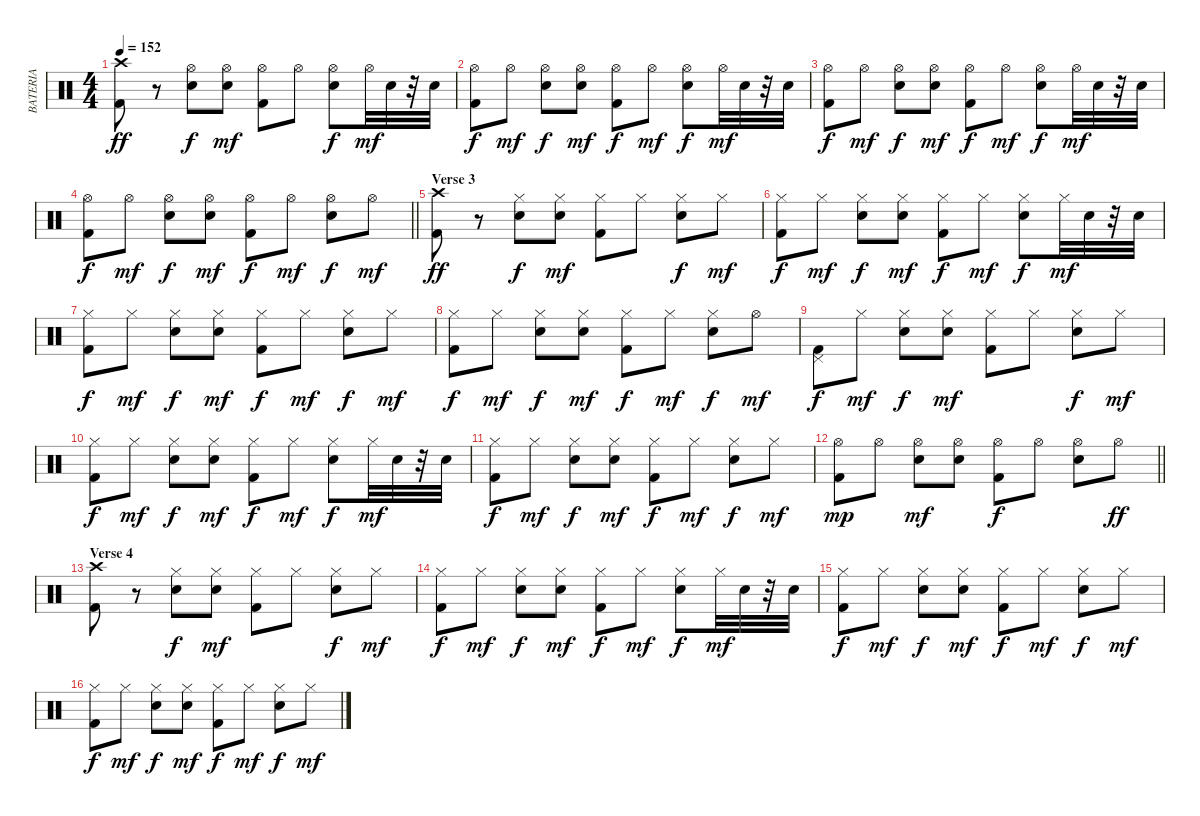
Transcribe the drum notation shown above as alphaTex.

\track ("BATERIA" "BATERIA") {instrument percussion}
\staff {score}
\articulation defaults
\ts (4 4)
\tempo 152
\clef neutral
\ks c
("Kick (hit) 2" "Crash high (hit)").8{dy ff} r.8 ("Snare (hit) 2" "Hi-Hat (open)").8{dy f} ("Snare (hit) 2" "Hi-Hat (open)").8{dy mf} ("Kick (hit) 2" "Hi-Hat (open)").8 "Hi-Hat (open)".8 ("Snare (hit) 2" "Hi-Hat (open)").8{dy f} "Hi-Hat (open)".32{dy mf} "Snare (hit) 2".32 r.32 "Snare (hit) 2".32 |
("Hi-Hat (open)" "Kick (hit) 2").8{dy f} "Hi-Hat (open)".8{dy mf} ("Hi-Hat (open)" "Snare (hit) 2").8{dy f} ("Hi-Hat (open)" "Snare (hit) 2").8{dy mf} ("Hi-Hat (open)" "Kick (hit) 2").8{dy f} "Hi-Hat (open)".8{dy mf} ("Hi-Hat (open)" "Snare (hit) 2").8{dy f} "Hi-Hat (open)".32{dy mf} "Snare (hit) 2".32 r.32 "Snare (hit) 2".32 |
("Hi-Hat (open)" "Kick (hit) 2").8{dy f} "Hi-Hat (open)".8{dy mf} ("Hi-Hat (open)" "Snare (hit) 2").8{dy f} ("Hi-Hat (open)" "Snare (hit) 2").8{dy mf} ("Hi-Hat (open)" "Kick (hit) 2").8{dy f} "Hi-Hat (open)".8{dy mf} ("Hi-Hat (open)" "Snare (hit) 2").8{dy f} "Hi-Hat (open)".32{dy mf} "Snare (hit) 2".32 r.32 "Snare (hit) 2".32 |
\barLineRight lightlight
("Hi-Hat (open)" "Kick (hit) 2").8{dy f} "Hi-Hat (open)".8{dy mf} ("Snare (hit) 2" "Hi-Hat (open)").8{dy f} ("Snare (hit) 2" "Hi-Hat (open)").8{dy mf} ("Hi-Hat (open)" "Kick (hit) 2").8{dy f} "Hi-Hat (open)".8{dy mf} ("Hi-Hat (open)" "Snare (hit) 2").8{dy f} "Hi-Hat (open)".8{dy mf} |
\section ("" "Verse 3")
("Kick (hit) 2" "Crash high (hit)").8{dy ff} r.8 ("Snare (hit) 2" "Hi-Hat (closed)").8{dy f} ("Snare (hit) 2" "Hi-Hat (closed)").8{dy mf} ("Kick (hit) 2" "Hi-Hat (closed)").8 "Hi-Hat (closed)".8 ("Snare (hit) 2" "Hi-Hat (closed)").8{dy f} "Hi-Hat (closed)".8{dy mf} |
("Hi-Hat (closed)" "Kick (hit) 2").8{dy f} "Hi-Hat (closed)".8{dy mf} ("Hi-Hat (closed)" "Snare (hit) 2").8{dy f} ("Hi-Hat (closed)" "Snare (hit) 2").8{dy mf} ("Hi-Hat (closed)" "Kick (hit) 2").8{dy f} "Hi-Hat (closed)".8{dy mf} ("Hi-Hat (closed)" "Snare (hit) 2").8{dy f} "Hi-Hat (closed)".32{dy mf} "Snare (hit) 2".32 r.32 "Snare (hit) 2".32 |
("Hi-Hat (closed)" "Kick (hit) 2").8{dy f} "Hi-Hat (closed)".8{dy mf} ("Hi-Hat (closed)" "Snare (hit) 2").8{dy f} ("Hi-Hat (closed)" "Snare (hit) 2").8{dy mf} ("Hi-Hat (closed)" "Kick (hit) 2").8{dy f} "Hi-Hat (closed)".8{dy mf} ("Hi-Hat (closed)" "Snare (hit) 2").8{dy f} "Hi-Hat (closed)".8{dy mf} |
("Hi-Hat (closed)" "Kick (hit) 2").8{dy f} "Hi-Hat (closed)".8{dy mf} ("Snare (hit) 2" "Hi-Hat (closed)").8{dy f} ("Snare (hit) 2" "Hi-Hat (closed)").8{dy mf} ("Hi-Hat (closed)" "Kick (hit) 2").8{dy f} "Hi-Hat (closed)".8{dy mf} ("Hi-Hat (closed)" "Snare (hit) 2").8{dy f} "Hi-Hat (open)".8{dy mf} |
("Kick (hit) 2" "Pedal Hi-Hat (hit)").8{dy f} "Hi-Hat (closed)".8{dy mf} ("Snare (hit) 2" "Hi-Hat (closed)").8{dy f} ("Snare (hit) 2" "Hi-Hat (closed)").8{dy mf} ("Kick (hit) 2" "Hi-Hat (closed)").8 "Hi-Hat (closed)".8 ("Snare (hit) 2" "Hi-Hat (closed)").8{dy f} "Hi-Hat (closed)".8{dy mf} |
("Hi-Hat (closed)" "Kick (hit) 2").8{dy f} "Hi-Hat (closed)".8{dy mf} ("Hi-Hat (closed)" "Snare (hit) 2").8{dy f} ("Hi-Hat (closed)" "Snare (hit) 2").8{dy mf} ("Hi-Hat (closed)" "Kick (hit) 2").8{dy f} "Hi-Hat (closed)".8{dy mf} ("Hi-Hat (closed)" "Snare (hit) 2").8{dy f} "Hi-Hat (closed)".32{dy mf} "Snare (hit) 2".32 r.32 "Snare (hit) 2".32 |
("Hi-Hat (closed)" "Kick (hit) 2").8{dy f} "Hi-Hat (closed)".8{dy mf} ("Hi-Hat (closed)" "Snare (hit) 2").8{dy f} ("Hi-Hat (closed)" "Snare (hit) 2").8{dy mf} ("Hi-Hat (closed)" "Kick (hit) 2").8{dy f} "Hi-Hat (closed)".8{dy mf} ("Hi-Hat (closed)" "Snare (hit) 2").8{dy f} "Hi-Hat (closed)".8{dy mf} |
\barLineRight lightlight
("Hi-Hat (open)" "Kick (hit) 2").8{dy mp} "Hi-Hat (open)".8 ("Snare (hit) 2" "Hi-Hat (open)").8{dy mf} ("Snare (hit) 2" "Hi-Hat (open)").8 ("Hi-Hat (open)" "Kick (hit) 2").8{dy f} "Hi-Hat (open)".8 ("Hi-Hat (open)" "Snare (hit) 2").8 "Hi-Hat (open)".8{dy ff} |
\section ("" "Verse 4")
("Kick (hit) 2" "Crash high (hit)").8 r.8 ("Snare (hit) 2" "Hi-Hat (closed)").8{dy f} ("Snare (hit) 2" "Hi-Hat (closed)").8{dy mf} ("Kick (hit) 2" "Hi-Hat (closed)").8 "Hi-Hat (closed)".8 ("Snare (hit) 2" "Hi-Hat (closed)").8{dy f} "Hi-Hat (closed)".8{dy mf} |
("Hi-Hat (closed)" "Kick (hit) 2").8{dy f} "Hi-Hat (closed)".8{dy mf} ("Hi-Hat (closed)" "Snare (hit) 2").8{dy f} ("Hi-Hat (closed)" "Snare (hit) 2").8{dy mf} ("Hi-Hat (closed)" "Kick (hit) 2").8{dy f} "Hi-Hat (closed)".8{dy mf} ("Hi-Hat (closed)" "Snare (hit) 2").8{dy f} "Hi-Hat (closed)".32{dy mf} "Snare (hit) 2".32 r.32 "Snare (hit) 2".32 |
("Hi-Hat (closed)" "Kick (hit) 2").8{dy f} "Hi-Hat (closed)".8{dy mf} ("Hi-Hat (closed)" "Snare (hit) 2").8{dy f} ("Hi-Hat (closed)" "Snare (hit) 2").8{dy mf} ("Hi-Hat (closed)" "Kick (hit) 2").8{dy f} "Hi-Hat (closed)".8{dy mf} ("Hi-Hat (closed)" "Snare (hit) 2").8{dy f} "Hi-Hat (closed)".8{dy mf} |
("Hi-Hat (closed)" "Kick (hit) 2").8{dy f} "Hi-Hat (closed)".8{dy mf} ("Snare (hit) 2" "Hi-Hat (closed)").8{dy f} ("Snare (hit) 2" "Hi-Hat (closed)").8{dy mf} ("Hi-Hat (closed)" "Kick (hit) 2").8{dy f} "Hi-Hat (closed)".8{dy mf} ("Hi-Hat (closed)" "Snare (hit) 2").8{dy f} "Hi-Hat (closed)".8{dy mf}
